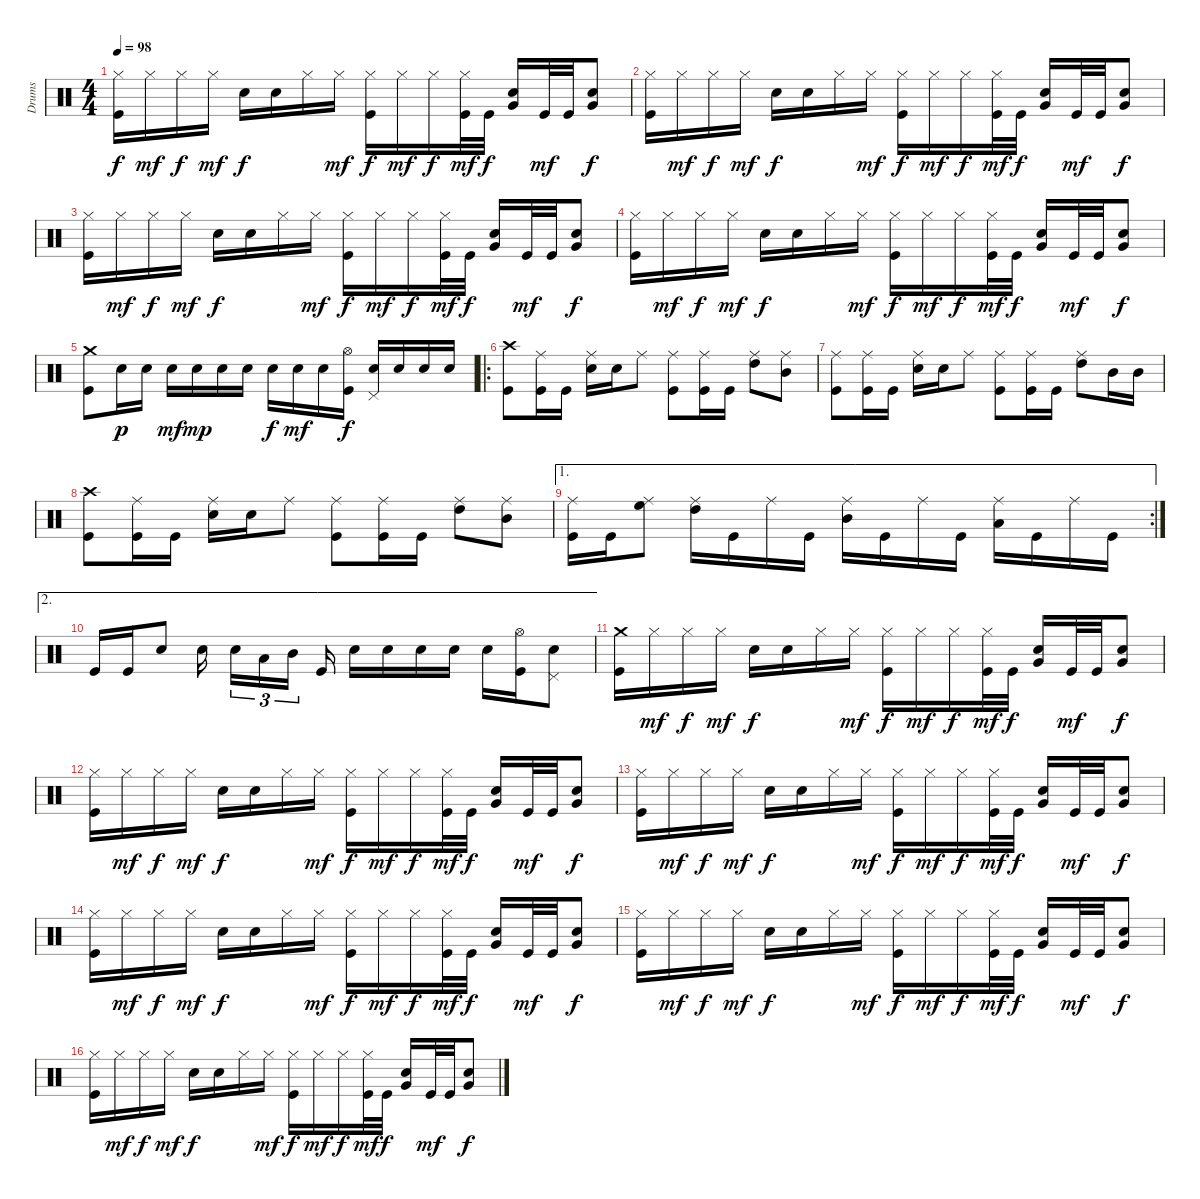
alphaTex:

\track ("Drums" "Drums") {instrument percussion}
\staff {score}
\articulation defaults
\ts (4 4)
\tempo 98
\clef neutral
\ks c
("Hi-Hat (closed)" "Kick (hit)").16{dy f} "Hi-Hat (closed)".16{dy mf} "Hi-Hat (closed)".16{dy f} "Hi-Hat (closed)".16{dy mf} "Electric Snare (hit)".16{dy f} "Electric Snare (hit)".16 "Hi-Hat (closed)".16 "Hi-Hat (closed)".16{dy mf} ("Hi-Hat (closed)" "Kick (hit)").16{dy f} "Hi-Hat (closed)".16{dy mf} "Hi-Hat (closed)".16{dy f} ("Hi-Hat (closed)" "Kick (hit)").32{dy mf} "Kick (hit)".32{dy f} ("Electric Snare (hit)" "Very Low Tom (hit)").16 "Kick (hit)".32{dy mf} "Kick (hit)".32 ("Electric Snare (hit)" "Very Low Tom (hit)").8{dy f} |
("Hi-Hat (closed)" "Kick (hit)").16 "Hi-Hat (closed)".16{dy mf} "Hi-Hat (closed)".16{dy f} "Hi-Hat (closed)".16{dy mf} "Electric Snare (hit)".16{dy f} "Electric Snare (hit)".16 "Hi-Hat (closed)".16 "Hi-Hat (closed)".16{dy mf} ("Hi-Hat (closed)" "Kick (hit)").16{dy f} "Hi-Hat (closed)".16{dy mf} "Hi-Hat (closed)".16{dy f} ("Hi-Hat (closed)" "Kick (hit)").32{dy mf} "Kick (hit)".32{dy f} ("Electric Snare (hit)" "Very Low Tom (hit)").16 "Kick (hit)".32{dy mf} "Kick (hit)".32 ("Electric Snare (hit)" "Very Low Tom (hit)").8{dy f} |
("Hi-Hat (closed)" "Kick (hit)").16 "Hi-Hat (closed)".16{dy mf} "Hi-Hat (closed)".16{dy f} "Hi-Hat (closed)".16{dy mf} "Electric Snare (hit)".16{dy f} "Electric Snare (hit)".16 "Hi-Hat (closed)".16 "Hi-Hat (closed)".16{dy mf} ("Hi-Hat (closed)" "Kick (hit)").16{dy f} "Hi-Hat (closed)".16{dy mf} "Hi-Hat (closed)".16{dy f} ("Hi-Hat (closed)" "Kick (hit)").32{dy mf} "Kick (hit)".32{dy f} ("Electric Snare (hit)" "Very Low Tom (hit)").16 "Kick (hit)".32{dy mf} "Kick (hit)".32 ("Electric Snare (hit)" "Very Low Tom (hit)").8{dy f} |
("Hi-Hat (closed)" "Kick (hit)").16 "Hi-Hat (closed)".16{dy mf} "Hi-Hat (closed)".16{dy f} "Hi-Hat (closed)".16{dy mf} "Electric Snare (hit)".16{dy f} "Electric Snare (hit)".16 "Hi-Hat (closed)".16 "Hi-Hat (closed)".16{dy mf} ("Hi-Hat (closed)" "Kick (hit)").16{dy f} "Hi-Hat (closed)".16{dy mf} "Hi-Hat (closed)".16{dy f} ("Hi-Hat (closed)" "Kick (hit)").32{dy mf} "Kick (hit)".32{dy f} ("Electric Snare (hit)" "Very Low Tom (hit)").16 "Kick (hit)".32{dy mf} "Kick (hit)".32 ("Electric Snare (hit)" "Very Low Tom (hit)").8{dy f} |
("Crash medium (hit)" "Kick (hit)").8 "Electric Snare (hit)".16{dy p} "Electric Snare (hit)".16 "Electric Snare (hit)".16{dy mf} "Electric Snare (hit)".16{dy mp} "Electric Snare (hit)".16 "Electric Snare (hit)".16 "Electric Snare (hit)".16{dy f} "Electric Snare (hit)".16{dy mf} "Electric Snare (hit)".16 ("Hi-Hat (open)" "Kick (hit)").16{dy f} ("Electric Snare (hit)" "Pedal Hi-Hat (hit)").16 "Electric Snare (hit)".16 "Electric Snare (hit)".16 "Electric Snare (hit)".16 |
\ro
("Crash high (hit)" "Kick (hit)").8 ("Ride (middle)" "Kick (hit)").16 "Kick (hit)".16 ("Ride (middle)" "Electric Snare (hit)").16 "Electric Snare (hit)".16 "Ride (middle)".8 ("Ride (middle)" "Kick (hit)").8 ("Ride (middle)" "Kick (hit)").16 "Kick (hit)".16 ("Ride (middle)" "High Tom (hit)").8 ("Ride (middle)" "Mid Tom (hit)").8 |
("Ride (middle)" "Kick (hit)").8 ("Ride (middle)" "Kick (hit)").16 "Kick (hit)".16 ("Ride (middle)" "Electric Snare (hit)").16 "Electric Snare (hit)".16 "Ride (middle)".8 ("Ride (middle)" "Kick (hit)").8 ("Ride (middle)" "Kick (hit)").16 "Kick (hit)".16 ("Ride (middle)" "High Tom (hit)").8 "Mid Tom (hit)".16 "Mid Tom (hit)".16 |
("Crash high (hit)" "Kick (hit)").8 ("Ride (middle)" "Kick (hit)").16 "Kick (hit)".16 ("Ride (middle)" "Electric Snare (hit)").16 "Electric Snare (hit)".16 "Ride (middle)".8 ("Ride (middle)" "Kick (hit)").8 ("Ride (middle)" "Kick (hit)").16 "Kick (hit)".16 ("Ride (middle)" "High Tom (hit)").8 ("Ride (middle)" "Mid Tom (hit)").8 |
\ae 1
\rc 2
("Ride (middle)" "Kick (hit)").16 "Kick (hit)".16 ("Ride (middle)" "High Floor Tom (hit)").8 ("Ride (middle)" "High Tom (hit)").16 "Kick (hit)".16 "Ride (middle)".16 "Kick (hit)".16 ("Ride (middle)" "Mid Tom (hit)").16 "Kick (hit)".16 "Ride (middle)".16 "Kick (hit)".16 ("Ride (middle)" "Low Tom (hit)").16 "Kick (hit)".16 "Ride (middle)".16 "Kick (hit)".16 |
\ae 2 "Kick (hit)".16 "Kick (hit)".16 "Electric Snare (hit)".8 "Electric Snare (hit)".16 "Electric Snare (hit)".16{tu (3 2)} "Low Tom (hit)".16{tu (3 2)} "Mid Tom (hit)".16{tu (3 2)} "Kick (hit)".16 "Electric Snare (hit)".16 "Electric Snare (hit)".16 "Electric Snare (hit)".16 "Electric Snare (hit)".16 "Electric Snare (hit)".16
("Hi-Hat (open)" "Kick (hit)").16 ("Electric Snare (hit)" "Pedal Hi-Hat (hit)").8 |
("Crash medium (hit)" "Kick (hit)").16 "Hi-Hat (closed)".16{dy mf} "Hi-Hat (closed)".16{dy f} "Hi-Hat (closed)".16{dy mf} "Electric Snare (hit)".16{dy f} "Electric Snare (hit)".16 "Hi-Hat (closed)".16 "Hi-Hat (closed)".16{dy mf} ("Hi-Hat (closed)" "Kick (hit)").16{dy f} "Hi-Hat (closed)".16{dy mf} "Hi-Hat (closed)".16{dy f} ("Hi-Hat (closed)" "Kick (hit)").32{dy mf} "Kick (hit)".32{dy f} ("Electric Snare (hit)" "Very Low Tom (hit)").16 "Kick (hit)".32{dy mf} "Kick (hit)".32 ("Electric Snare (hit)" "Very Low Tom (hit)").8{dy f} |
("Hi-Hat (closed)" "Kick (hit)").16 "Hi-Hat (closed)".16{dy mf} "Hi-Hat (closed)".16{dy f} "Hi-Hat (closed)".16{dy mf} "Electric Snare (hit)".16{dy f} "Electric Snare (hit)".16 "Hi-Hat (closed)".16 "Hi-Hat (closed)".16{dy mf} ("Hi-Hat (closed)" "Kick (hit)").16{dy f} "Hi-Hat (closed)".16{dy mf} "Hi-Hat (closed)".16{dy f} ("Hi-Hat (closed)" "Kick (hit)").32{dy mf} "Kick (hit)".32{dy f} ("Electric Snare (hit)" "Very Low Tom (hit)").16 "Kick (hit)".32{dy mf} "Kick (hit)".32 ("Electric Snare (hit)" "Very Low Tom (hit)").8{dy f} |
("Hi-Hat (closed)" "Kick (hit)").16 "Hi-Hat (closed)".16{dy mf} "Hi-Hat (closed)".16{dy f} "Hi-Hat (closed)".16{dy mf} "Electric Snare (hit)".16{dy f} "Electric Snare (hit)".16 "Hi-Hat (closed)".16 "Hi-Hat (closed)".16{dy mf} ("Hi-Hat (closed)" "Kick (hit)").16{dy f} "Hi-Hat (closed)".16{dy mf} "Hi-Hat (closed)".16{dy f} ("Hi-Hat (closed)" "Kick (hit)").32{dy mf} "Kick (hit)".32{dy f} ("Electric Snare (hit)" "Very Low Tom (hit)").16 "Kick (hit)".32{dy mf} "Kick (hit)".32 ("Electric Snare (hit)" "Very Low Tom (hit)").8{dy f} |
("Hi-Hat (closed)" "Kick (hit)").16 "Hi-Hat (closed)".16{dy mf} "Hi-Hat (closed)".16{dy f} "Hi-Hat (closed)".16{dy mf} "Electric Snare (hit)".16{dy f} "Electric Snare (hit)".16 "Hi-Hat (closed)".16 "Hi-Hat (closed)".16{dy mf} ("Hi-Hat (closed)" "Kick (hit)").16{dy f} "Hi-Hat (closed)".16{dy mf} "Hi-Hat (closed)".16{dy f} ("Hi-Hat (closed)" "Kick (hit)").32{dy mf} "Kick (hit)".32{dy f} ("Electric Snare (hit)" "Very Low Tom (hit)").16 "Kick (hit)".32{dy mf} "Kick (hit)".32 ("Electric Snare (hit)" "Very Low Tom (hit)").8{dy f} |
("Hi-Hat (closed)" "Kick (hit)").16 "Hi-Hat (closed)".16{dy mf} "Hi-Hat (closed)".16{dy f} "Hi-Hat (closed)".16{dy mf} "Electric Snare (hit)".16{dy f} "Electric Snare (hit)".16 "Hi-Hat (closed)".16 "Hi-Hat (closed)".16{dy mf} ("Hi-Hat (closed)" "Kick (hit)").16{dy f} "Hi-Hat (closed)".16{dy mf} "Hi-Hat (closed)".16{dy f} ("Hi-Hat (closed)" "Kick (hit)").32{dy mf} "Kick (hit)".32{dy f} ("Electric Snare (hit)" "Very Low Tom (hit)").16 "Kick (hit)".32{dy mf} "Kick (hit)".32 ("Electric Snare (hit)" "Very Low Tom (hit)").8{dy f} |
("Hi-Hat (closed)" "Kick (hit)").16 "Hi-Hat (closed)".16{dy mf} "Hi-Hat (closed)".16{dy f} "Hi-Hat (closed)".16{dy mf} "Electric Snare (hit)".16{dy f} "Electric Snare (hit)".16 "Hi-Hat (closed)".16 "Hi-Hat (closed)".16{dy mf} ("Hi-Hat (closed)" "Kick (hit)").16{dy f} "Hi-Hat (closed)".16{dy mf} "Hi-Hat (closed)".16{dy f} ("Hi-Hat (closed)" "Kick (hit)").32{dy mf} "Kick (hit)".32{dy f} ("Electric Snare (hit)" "Very Low Tom (hit)").16 "Kick (hit)".32{dy mf} "Kick (hit)".32 ("Electric Snare (hit)" "Very Low Tom (hit)").8{dy f}
